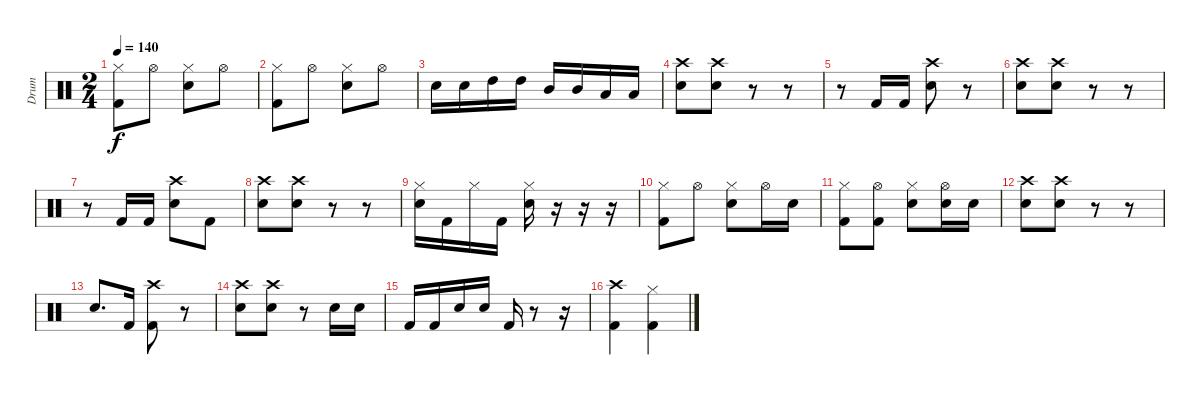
\track ("Drum" "Drum") {instrument percussion}
\staff {score}
\articulation defaults
\ts (2 4)
\tempo 140
\clef neutral
\ks c
("Kick (hit) 2" "Hi-Hat (closed)").8{dy f} "Hi-Hat (open)".8 ("Hi-Hat (closed)" "Electric Snare (hit)").8 "Hi-Hat (open)".8 |
("Kick (hit) 2" "Hi-Hat (closed)").8 "Hi-Hat (open)".8 ("Hi-Hat (closed)" "Electric Snare (hit)").8 "Hi-Hat (open)".8 |
"Electric Snare (hit)".16 "Electric Snare (hit)".16 "High Tom (hit)".16 "High Tom (hit)".16 "Mid Tom (hit)".16 "Mid Tom (hit)".16 "Low Tom (hit)".16 "Low Tom (hit)".16 |
("Electric Snare (hit)" "Crash high (hit)").8 ("Electric Snare (hit)" "Crash high (hit)").8 r.8 r.8 |
r.8 "Kick (hit) 2".16 "Kick (hit) 2".16 ("Electric Snare (hit)" "Crash high (hit)").8 r.8 |
("Electric Snare (hit)" "Crash high (hit)").8 ("Electric Snare (hit)" "Crash high (hit)").8 r.8 r.8 |
r.8 "Kick (hit) 2".16 "Kick (hit) 2".16 ("Electric Snare (hit)" "Crash high (hit)").8 "Kick (hit) 2".8 |
("Electric Snare (hit)" "Crash high (hit)").8 ("Electric Snare (hit)" "Crash high (hit)").8 r.8 r.8 |
("Hi-Hat (closed)" "Electric Snare (hit)").16 "Kick (hit) 2".16 "Hi-Hat (closed)".16 "Kick (hit) 2".16 ("Electric Snare (hit)" "Hi-Hat (closed)").16 r.16 r.16 r.16 |
("Kick (hit) 2" "Hi-Hat (closed)").8 "Hi-Hat (open)".8 ("Hi-Hat (closed)" "Electric Snare (hit)").8 "Hi-Hat (open)".16 "Electric Snare (hit)".16 |
("Kick (hit) 2" "Hi-Hat (closed)").8 ("Kick (hit) 2" "Hi-Hat (open)").8 ("Hi-Hat (closed)" "Electric Snare (hit)").8 ("Hi-Hat (open)" "Electric Snare (hit)").16 "Electric Snare (hit)".16 |
("Electric Snare (hit)" "Crash high (hit)").8 ("Electric Snare (hit)" "Crash high (hit)").8 r.8 r.8 |
"Electric Snare (hit)".8{d} "Kick (hit) 2".16 ("Kick (hit) 2" "Crash high (hit)").8 r.8 |
("Electric Snare (hit)" "Crash high (hit)").8 ("Electric Snare (hit)" "Crash high (hit)").8 r.8 "Electric Snare (hit)".16 "Electric Snare (hit)".16 |
"Kick (hit) 2".16 "Kick (hit) 2".16 "Electric Snare (hit)".16 "Electric Snare (hit)".16 "Kick (hit) 2".16 r.8 r.16 |
("Kick (hit) 2" "Crash high (hit)").4 ("Kick (hit) 2" "Hi-Hat (closed)").4
